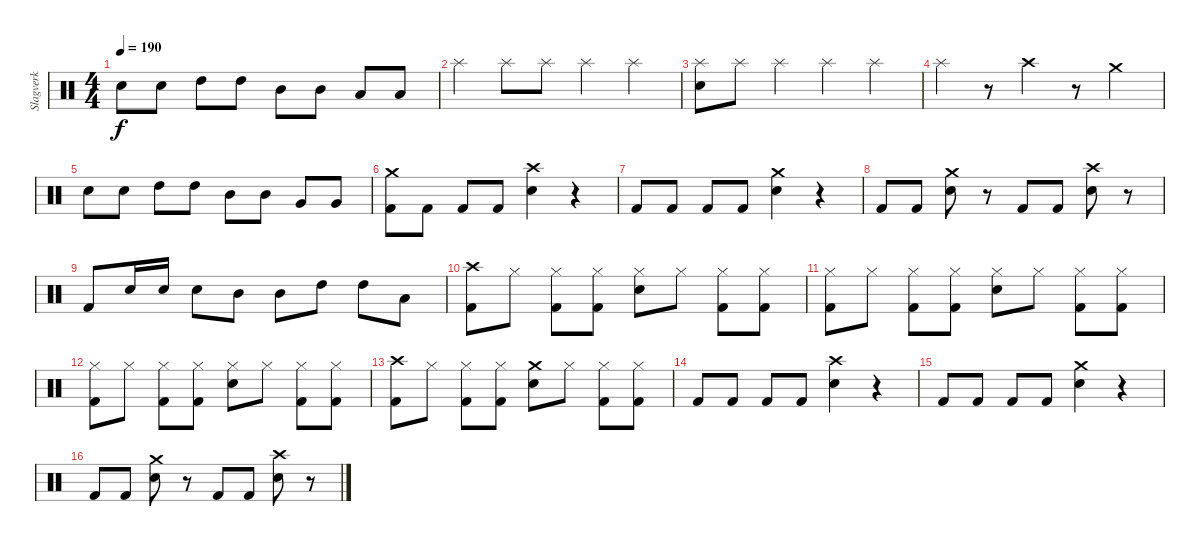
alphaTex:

\track ("Slagverk" "Slagverk") {instrument percussion}
\staff {score}
\articulation defaults
\ts (4 4)
\tempo 190
\clef neutral
\ks c "Snare (hit) 2".8{dy f} "Snare (hit) 2".8 "High Tom (hit)".8 "High Tom (hit)".8 "Mid Tom (hit)".8 "Mid Tom (hit)".8 "Low Floor Tom (hit)".8 "Low Floor Tom (hit)".8
|
"Splash (hit)".4 "Splash (hit)".8 "Splash (hit)".8 "Splash (hit)".4 "Splash (hit)".4 |
("Splash (hit)" "Snare (hit) 2").8 "Splash (hit)".8 "Splash (hit)".4 "Splash (hit)".4 "Splash (hit)".4 |
"Splash (hit)".4 r.8 "Crash high (hit)".4 r.8 "Crash medium (hit)".4 |
"Snare (hit) 2".8 "Snare (hit) 2".8 "High Tom (hit)".8 "High Tom (hit)".8 "Mid Tom (hit)".8 "Mid Tom (hit)".8 "Very Low Tom (hit)".8 "Very Low Tom (hit)".8 |
("Crash medium (hit)" "Kick (hit) 2").8 "Kick (hit) 2".8 "Kick (hit) 2".8 "Kick (hit) 2".8 ("Crash high (hit)" "Snare (hit) 2").4 r.4 |
"Kick (hit) 2".8 "Kick (hit) 2".8 "Kick (hit) 2".8 "Kick (hit) 2".8 ("Crash medium (hit)" "Snare (hit) 2").4 r.4 |
"Kick (hit) 2".8 "Kick (hit) 2".8 ("Crash medium (hit)" "Snare (hit) 2").8 r.8 "Kick (hit) 2".8 "Kick (hit) 2".8 ("Crash high (hit)" "Snare (hit) 2").8 r.8 |
"Kick (hit) 2".8 "Snare (hit) 2".16 "Snare (hit) 2".16 "Snare (hit) 2".8 "Mid Tom (hit)".8 "Mid Tom (hit)".8 "High Tom (hit)".8 "High Tom (hit)".8 "Low Tom (hit)".8 |
("Crash high (hit)" "Kick (hit) 2").8 "Hi-Hat (closed)".8 ("Hi-Hat (closed)" "Kick (hit) 2").8 ("Hi-Hat (closed)" "Kick (hit) 2").8 ("Hi-Hat (closed)" "Snare (hit) 2").8 "Hi-Hat (closed)".8 ("Hi-Hat (closed)" "Kick (hit) 2").8 ("Hi-Hat (closed)" "Kick (hit) 2").8 |
("Hi-Hat (closed)" "Kick (hit) 2").8 "Hi-Hat (closed)".8 ("Hi-Hat (closed)" "Kick (hit) 2").8 ("Hi-Hat (closed)" "Kick (hit) 2").8 ("Hi-Hat (closed)" "Snare (hit) 2").8 "Hi-Hat (closed)".8 ("Hi-Hat (closed)" "Kick (hit) 2").8 ("Hi-Hat (closed)" "Kick (hit) 2").8 |
("Hi-Hat (closed)" "Kick (hit) 2").8 "Hi-Hat (closed)".8 ("Hi-Hat (closed)" "Kick (hit) 2").8 ("Hi-Hat (closed)" "Kick (hit) 2").8 ("Hi-Hat (closed)" "Snare (hit) 2").8 "Hi-Hat (closed)".8 ("Hi-Hat (closed)" "Kick (hit) 2").8 ("Hi-Hat (closed)" "Kick (hit) 2").8 |
("Crash high (hit)" "Kick (hit) 2").8 "Hi-Hat (closed)".8 ("Hi-Hat (closed)" "Kick (hit) 2").8 ("Hi-Hat (closed)" "Kick (hit) 2").8 ("Crash medium (hit)" "Snare (hit) 2").8 "Hi-Hat (closed)".8 ("Hi-Hat (closed)" "Kick (hit) 2").8 ("Hi-Hat (closed)" "Kick (hit) 2").8 |
"Kick (hit) 2".8 "Kick (hit) 2".8 "Kick (hit) 2".8 "Kick (hit) 2".8 ("Crash high (hit)" "Snare (hit) 2").4 r.4 |
"Kick (hit) 2".8 "Kick (hit) 2".8 "Kick (hit) 2".8 "Kick (hit) 2".8 ("Crash medium (hit)" "Snare (hit) 2").4 r.4 |
"Kick (hit) 2".8 "Kick (hit) 2".8 ("Crash medium (hit)" "Snare (hit) 2").8 r.8 "Kick (hit) 2".8 "Kick (hit) 2".8 ("Crash high (hit)" "Snare (hit) 2").8 r.8
